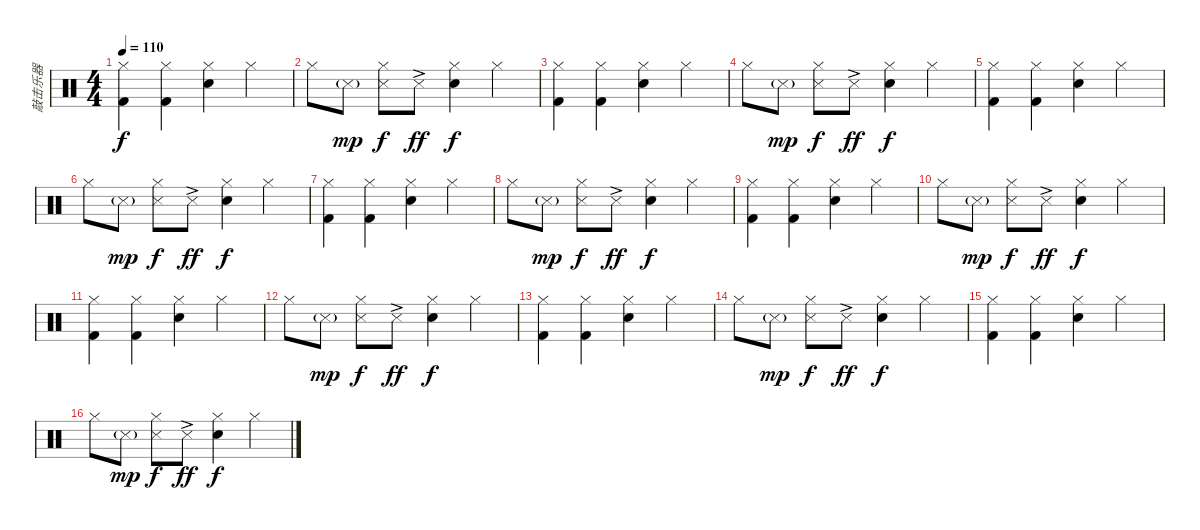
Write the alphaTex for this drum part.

\track ("敲击乐器" "敲击乐器") {instrument percussion}
\staff {score}
\articulation defaults
\ts (4 4)
\tempo 110
\clef neutral
\ks c
("Kick (hit) 2" "Hi-Hat (closed)").4{dy f} ("Kick (hit) 2" "Hi-Hat (closed)").4 ("Snare (hit) 2" "Hi-Hat (closed)").4 "Hi-Hat (closed)".4 |
"Hi-Hat (closed)".8 "Metronome (hit)"{g}.8{dy mp} ("Metronome (hit)" "Hi-Hat (closed)").8{dy f} "Metronome (hit)"{ac}.8{dy ff} ("Snare (hit) 2" "Hi-Hat (closed)").4{dy f} "Hi-Hat (closed)".4 |
("Kick (hit) 2" "Hi-Hat (closed)").4 ("Kick (hit) 2" "Hi-Hat (closed)").4 ("Snare (hit) 2" "Hi-Hat (closed)").4 "Hi-Hat (closed)".4 |
"Hi-Hat (closed)".8 "Metronome (hit)"{g}.8{dy mp} ("Metronome (hit)" "Hi-Hat (closed)").8{dy f} "Metronome (hit)"{ac}.8{dy ff} ("Snare (hit) 2" "Hi-Hat (closed)").4{dy f} "Hi-Hat (closed)".4 |
("Kick (hit) 2" "Hi-Hat (closed)").4 ("Kick (hit) 2" "Hi-Hat (closed)").4 ("Snare (hit) 2" "Hi-Hat (closed)").4 "Hi-Hat (closed)".4 |
"Hi-Hat (closed)".8 "Metronome (hit)"{g}.8{dy mp} ("Metronome (hit)" "Hi-Hat (closed)").8{dy f} "Metronome (hit)"{ac}.8{dy ff} ("Snare (hit) 2" "Hi-Hat (closed)").4{dy f} "Hi-Hat (closed)".4 |
("Kick (hit) 2" "Hi-Hat (closed)").4 ("Kick (hit) 2" "Hi-Hat (closed)").4 ("Snare (hit) 2" "Hi-Hat (closed)").4 "Hi-Hat (closed)".4 |
"Hi-Hat (closed)".8 "Metronome (hit)"{g}.8{dy mp} ("Metronome (hit)" "Hi-Hat (closed)").8{dy f} "Metronome (hit)"{ac}.8{dy ff} ("Snare (hit) 2" "Hi-Hat (closed)").4{dy f} "Hi-Hat (closed)".4 |
("Kick (hit) 2" "Hi-Hat (closed)").4 ("Kick (hit) 2" "Hi-Hat (closed)").4 ("Snare (hit) 2" "Hi-Hat (closed)").4 "Hi-Hat (closed)".4 |
"Hi-Hat (closed)".8 "Metronome (hit)"{g}.8{dy mp} ("Metronome (hit)" "Hi-Hat (closed)").8{dy f} "Metronome (hit)"{ac}.8{dy ff} ("Snare (hit) 2" "Hi-Hat (closed)").4{dy f} "Hi-Hat (closed)".4 |
("Kick (hit) 2" "Hi-Hat (closed)").4 ("Kick (hit) 2" "Hi-Hat (closed)").4 ("Snare (hit) 2" "Hi-Hat (closed)").4 "Hi-Hat (closed)".4 |
"Hi-Hat (closed)".8 "Metronome (hit)"{g}.8{dy mp} ("Metronome (hit)" "Hi-Hat (closed)").8{dy f} "Metronome (hit)"{ac}.8{dy ff} ("Snare (hit) 2" "Hi-Hat (closed)").4{dy f} "Hi-Hat (closed)".4 |
("Kick (hit) 2" "Hi-Hat (closed)").4 ("Kick (hit) 2" "Hi-Hat (closed)").4 ("Snare (hit) 2" "Hi-Hat (closed)").4 "Hi-Hat (closed)".4 |
"Hi-Hat (closed)".8 "Metronome (hit)"{g}.8{dy mp} ("Metronome (hit)" "Hi-Hat (closed)").8{dy f} "Metronome (hit)"{ac}.8{dy ff} ("Snare (hit) 2" "Hi-Hat (closed)").4{dy f} "Hi-Hat (closed)".4 |
("Kick (hit) 2" "Hi-Hat (closed)").4 ("Kick (hit) 2" "Hi-Hat (closed)").4 ("Snare (hit) 2" "Hi-Hat (closed)").4 "Hi-Hat (closed)".4 |
"Hi-Hat (closed)".8 "Metronome (hit)"{g}.8{dy mp} ("Metronome (hit)" "Hi-Hat (closed)").8{dy f} "Metronome (hit)"{ac}.8{dy ff} ("Snare (hit) 2" "Hi-Hat (closed)").4{dy f} "Hi-Hat (closed)".4
